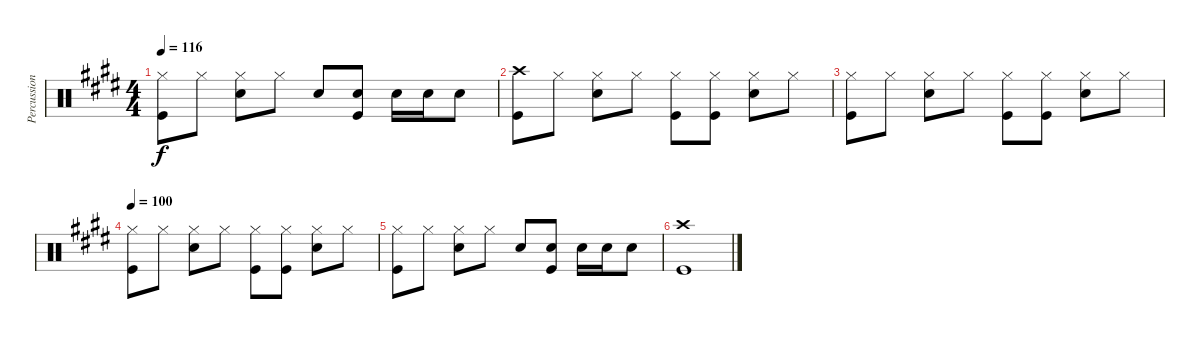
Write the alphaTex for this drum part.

\track ("Percussion" "Percussion") {instrument percussion}
\staff {score}
\articulation defaults
\ts (4 4)
\tempo 116
\clef neutral
\ks e
("Hi-Hat (closed)" "Kick (hit)").8{dy f} "Hi-Hat (closed)".8 ("Hi-Hat (closed)" "Snare (hit) 2").8 "Hi-Hat (closed)".8 "Snare (hit) 2".8 ("Snare (hit) 2" "Kick (hit)").8 "Snare (hit) 2".16 "Snare (hit) 2".16 "Snare (hit) 2".8 |
("Crash high (hit)" "Kick (hit)").8 "Hi-Hat (closed)".8 ("Hi-Hat (closed)" "Snare (hit) 2").8 "Hi-Hat (closed)".8 ("Hi-Hat (closed)" "Kick (hit)").8 ("Hi-Hat (closed)" "Kick (hit)").8 ("Hi-Hat (closed)" "Snare (hit) 2").8 "Hi-Hat (closed)".8 |
("Hi-Hat (closed)" "Kick (hit)").8 "Hi-Hat (closed)".8 ("Hi-Hat (closed)" "Snare (hit) 2").8 "Hi-Hat (closed)".8 ("Hi-Hat (closed)" "Kick (hit)").8 ("Hi-Hat (closed)" "Kick (hit)").8 ("Hi-Hat (closed)" "Snare (hit) 2").8 "Hi-Hat (closed)".8 |
\tempo 100
("Hi-Hat (closed)" "Kick (hit)").8 "Hi-Hat (closed)".8 ("Hi-Hat (closed)" "Snare (hit) 2").8 "Hi-Hat (closed)".8 ("Hi-Hat (closed)" "Kick (hit)").8 ("Hi-Hat (closed)" "Kick (hit)").8 ("Hi-Hat (closed)" "Snare (hit) 2").8 "Hi-Hat (closed)".8 |
("Hi-Hat (closed)" "Kick (hit)").8 "Hi-Hat (closed)".8 ("Hi-Hat (closed)" "Snare (hit) 2").8 "Hi-Hat (closed)".8 "Snare (hit) 2".8 ("Snare (hit) 2" "Kick (hit)").8 "Snare (hit) 2".16 "Snare (hit) 2".16 "Snare (hit) 2".8 |
("Crash high (hit)" "Kick (hit)").1
